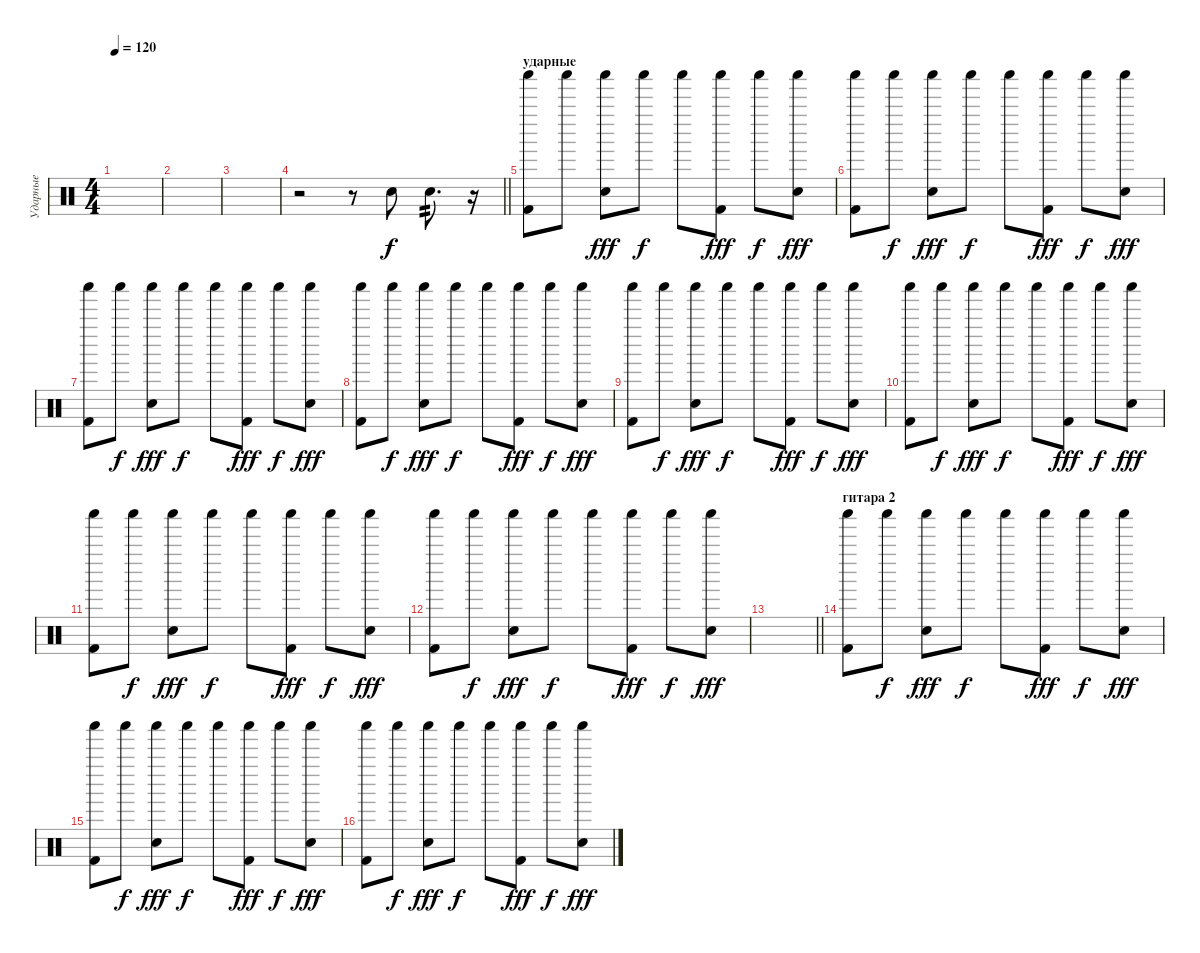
\track ("Ударные" "Ударные") {instrument percussion}
\staff {score}
\articulation defaults
\ts (4 4)
\tempo 120
\clef neutral
\ks c
|
|
|
\barLineRight lightlight
r.2 r.8 "Electric Snare (hit)".8 "Electric Snare (hit)".8{d tp 2} r.16 |
\section ("" "ударные")
("Kick (hit) 2" "Shaker (hit)").8 "Shaker (hit)".8{dy f} ("Electric Snare (hit)" "Shaker (hit)").8{dy fff} "Shaker (hit)".8{dy f} "Shaker (hit)".8 ("Kick (hit) 2" "Shaker (hit)").8{dy fff} "Shaker (hit)".8{dy f} ("Electric Snare (hit)" "Shaker (hit)").8{dy fff} |
("Kick (hit) 2" "Shaker (hit)").8 "Shaker (hit)".8{dy f} ("Electric Snare (hit)" "Shaker (hit)").8{dy fff} "Shaker (hit)".8{dy f} "Shaker (hit)".8 ("Kick (hit) 2" "Shaker (hit)").8{dy fff} "Shaker (hit)".8{dy f} ("Electric Snare (hit)" "Shaker (hit)").8{dy fff} |
("Kick (hit) 2" "Shaker (hit)").8 "Shaker (hit)".8{dy f} ("Electric Snare (hit)" "Shaker (hit)").8{dy fff} "Shaker (hit)".8{dy f} "Shaker (hit)".8 ("Kick (hit) 2" "Shaker (hit)").8{dy fff} "Shaker (hit)".8{dy f} ("Electric Snare (hit)" "Shaker (hit)").8{dy fff} |
("Kick (hit) 2" "Shaker (hit)").8 "Shaker (hit)".8{dy f} ("Electric Snare (hit)" "Shaker (hit)").8{dy fff} "Shaker (hit)".8{dy f} "Shaker (hit)".8 ("Kick (hit) 2" "Shaker (hit)").8{dy fff} "Shaker (hit)".8{dy f} ("Electric Snare (hit)" "Shaker (hit)").8{dy fff} |
("Kick (hit) 2" "Shaker (hit)").8 "Shaker (hit)".8{dy f} ("Electric Snare (hit)" "Shaker (hit)").8{dy fff} "Shaker (hit)".8{dy f} "Shaker (hit)".8 ("Kick (hit) 2" "Shaker (hit)").8{dy fff} "Shaker (hit)".8{dy f} ("Electric Snare (hit)" "Shaker (hit)").8{dy fff} |
("Kick (hit) 2" "Shaker (hit)").8 "Shaker (hit)".8{dy f} ("Electric Snare (hit)" "Shaker (hit)").8{dy fff} "Shaker (hit)".8{dy f} "Shaker (hit)".8 ("Kick (hit) 2" "Shaker (hit)").8{dy fff} "Shaker (hit)".8{dy f} ("Electric Snare (hit)" "Shaker (hit)").8{dy fff} |
("Kick (hit) 2" "Shaker (hit)").8 "Shaker (hit)".8{dy f} ("Electric Snare (hit)" "Shaker (hit)").8{dy fff} "Shaker (hit)".8{dy f} "Shaker (hit)".8 ("Kick (hit) 2" "Shaker (hit)").8{dy fff} "Shaker (hit)".8{dy f} ("Electric Snare (hit)" "Shaker (hit)").8{dy fff} |
("Kick (hit) 2" "Shaker (hit)").8 "Shaker (hit)".8{dy f} ("Electric Snare (hit)" "Shaker (hit)").8{dy fff} "Shaker (hit)".8{dy f} "Shaker (hit)".8 ("Kick (hit) 2" "Shaker (hit)").8{dy fff} "Shaker (hit)".8{dy f} ("Electric Snare (hit)" "Shaker (hit)").8{dy fff} |
\barLineRight lightlight
|
\section ("" "гитара 2")
("Kick (hit) 2" "Shaker (hit)").8 "Shaker (hit)".8{dy f} ("Electric Snare (hit)" "Shaker (hit)").8{dy fff} "Shaker (hit)".8{dy f} "Shaker (hit)".8 ("Kick (hit) 2" "Shaker (hit)").8{dy fff} "Shaker (hit)".8{dy f} ("Electric Snare (hit)" "Shaker (hit)").8{dy fff} |
("Kick (hit) 2" "Shaker (hit)").8 "Shaker (hit)".8{dy f} ("Electric Snare (hit)" "Shaker (hit)").8{dy fff} "Shaker (hit)".8{dy f} "Shaker (hit)".8 ("Kick (hit) 2" "Shaker (hit)").8{dy fff} "Shaker (hit)".8{dy f} ("Electric Snare (hit)" "Shaker (hit)").8{dy fff} |
("Kick (hit) 2" "Shaker (hit)").8 "Shaker (hit)".8{dy f} ("Electric Snare (hit)" "Shaker (hit)").8{dy fff} "Shaker (hit)".8{dy f} "Shaker (hit)".8 ("Kick (hit) 2" "Shaker (hit)").8{dy fff} "Shaker (hit)".8{dy f} ("Electric Snare (hit)" "Shaker (hit)").8{dy fff}
